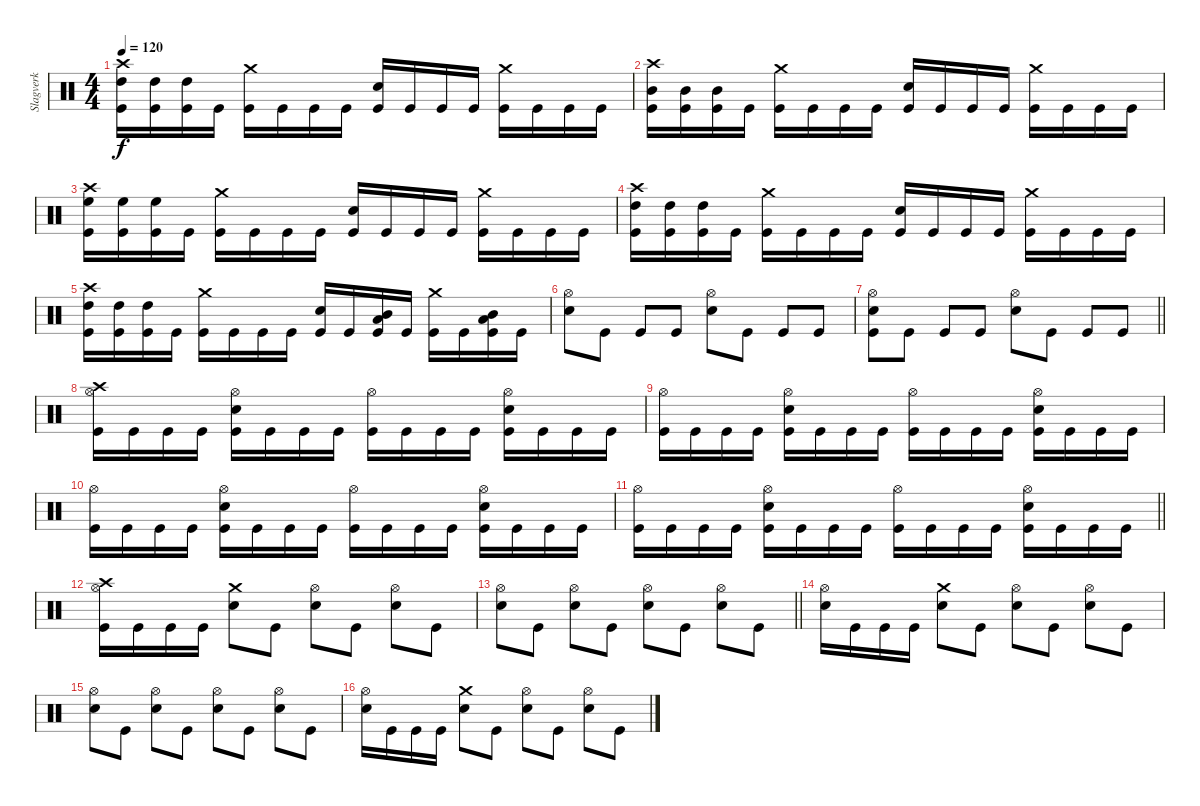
\track ("Slagverk" "Slagverk") {instrument percussion}
\staff {score}
\articulation defaults
\ts (4 4)
\tempo 120
\clef neutral
\ks c
("Crash high (hit)" "High Tom (hit)" "Kick (hit)").16{dy f} ("High Tom (hit)" "Kick (hit)").16 ("High Tom (hit)" "Kick (hit)").16 "Kick (hit)".16 ("Crash medium (hit)" "Kick (hit)").16 "Kick (hit)".16 "Kick (hit)".16 "Kick (hit)".16 ("Electric Snare (hit)" "Kick (hit)").16 "Kick (hit)".16 "Kick (hit)".16 "Kick (hit)".16 ("Crash medium (hit)" "Kick (hit)").16 "Kick (hit)".16 "Kick (hit)".16 "Kick (hit)".16 |
("Crash high (hit)" "Mid Tom (hit)" "Kick (hit)").16 ("Mid Tom (hit)" "Kick (hit)").16 ("Mid Tom (hit)" "Kick (hit)").16 "Kick (hit)".16 ("Crash medium (hit)" "Kick (hit)").16 "Kick (hit)".16 "Kick (hit)".16 "Kick (hit)".16 ("Electric Snare (hit)" "Kick (hit)").16 "Kick (hit)".16 "Kick (hit)".16 "Kick (hit)".16 ("Crash medium (hit)" "Kick (hit)").16 "Kick (hit)".16 "Kick (hit)".16 "Kick (hit)".16 |
("Crash high (hit)" "High Floor Tom (hit)" "Kick (hit)").16 ("High Floor Tom (hit)" "Kick (hit)").16 ("High Floor Tom (hit)" "Kick (hit)").16 "Kick (hit)".16 ("Crash medium (hit)" "Kick (hit)").16 "Kick (hit)".16 "Kick (hit)".16 "Kick (hit)".16 ("Electric Snare (hit)" "Kick (hit)").16 "Kick (hit)".16 "Kick (hit)".16 "Kick (hit)".16 ("Crash medium (hit)" "Kick (hit)").16 "Kick (hit)".16 "Kick (hit)".16 "Kick (hit)".16 |
("Crash high (hit)" "High Tom (hit)" "Kick (hit)").16 ("High Tom (hit)" "Kick (hit)").16 ("High Tom (hit)" "Kick (hit)").16 "Kick (hit)".16 ("Crash medium (hit)" "Kick (hit)").16 "Kick (hit)".16 "Kick (hit)".16 "Kick (hit)".16 ("Electric Snare (hit)" "Kick (hit)").16 "Kick (hit)".16 "Kick (hit)".16 "Kick (hit)".16 ("Crash medium (hit)" "Kick (hit)").16 "Kick (hit)".16 "Kick (hit)".16 "Kick (hit)".16 |
("Crash high (hit)" "High Tom (hit)" "Kick (hit)").16 ("High Tom (hit)" "Kick (hit)").16 ("High Tom (hit)" "Kick (hit)").16 "Kick (hit)".16 ("Crash medium (hit)" "Kick (hit)").16 "Kick (hit)".16 "Kick (hit)".16 "Kick (hit)".16 ("Electric Snare (hit)" "Kick (hit)").16 "Kick (hit)".16 ("Mid Tom (hit)" "Low Tom (hit)" "Kick (hit)").16 "Kick (hit)".16 ("Crash medium (hit)" "Kick (hit)").16 "Kick (hit)".16 ("Mid Tom (hit)" "Low Tom (hit)" "Kick (hit)").16 "Kick (hit)".16 |
("Hi-Hat (open)" "Electric Snare (hit)").8 "Kick (hit)".8 "Kick (hit)".8 "Kick (hit)".8 ("Hi-Hat (open)" "Electric Snare (hit)").8 "Kick (hit)".8 "Kick (hit)".8 "Kick (hit)".8 |
\barLineRight lightlight
("Hi-Hat (open)" "Electric Snare (hit)" "Kick (hit)").8 "Kick (hit)".8 "Kick (hit)".8 "Kick (hit)".8 ("Hi-Hat (open)" "Electric Snare (hit)").8 "Kick (hit)".8 "Kick (hit)".8 "Kick (hit)".8 |
("Crash high (hit)" "Hi-Hat (open)" "Kick (hit)").16 "Kick (hit)".16 "Kick (hit)".16 "Kick (hit)".16 ("Hi-Hat (open)" "Electric Snare (hit)" "Kick (hit)").16 "Kick (hit)".16 "Kick (hit)".16 "Kick (hit)".16 ("Hi-Hat (open)" "Kick (hit)").16 "Kick (hit)".16 "Kick (hit)".16 "Kick (hit)".16 ("Hi-Hat (open)" "Electric Snare (hit)" "Kick (hit)").16 "Kick (hit)".16 "Kick (hit)".16 "Kick (hit)".16 |
("Hi-Hat (open)" "Kick (hit)").16 "Kick (hit)".16 "Kick (hit)".16 "Kick (hit)".16 ("Hi-Hat (open)" "Electric Snare (hit)" "Kick (hit)").16 "Kick (hit)".16 "Kick (hit)".16 "Kick (hit)".16 ("Hi-Hat (open)" "Kick (hit)").16 "Kick (hit)".16 "Kick (hit)".16 "Kick (hit)".16 ("Hi-Hat (open)" "Electric Snare (hit)" "Kick (hit)").16 "Kick (hit)".16 "Kick (hit)".16 "Kick (hit)".16 |
("Hi-Hat (open)" "Kick (hit)").16 "Kick (hit)".16 "Kick (hit)".16 "Kick (hit)".16 ("Hi-Hat (open)" "Electric Snare (hit)" "Kick (hit)").16 "Kick (hit)".16 "Kick (hit)".16 "Kick (hit)".16 ("Hi-Hat (open)" "Kick (hit)").16 "Kick (hit)".16 "Kick (hit)".16 "Kick (hit)".16 ("Hi-Hat (open)" "Electric Snare (hit)" "Kick (hit)").16 "Kick (hit)".16 "Kick (hit)".16 "Kick (hit)".16 |
\barLineRight lightlight
("Hi-Hat (open)" "Kick (hit)").16 "Kick (hit)".16 "Kick (hit)".16 "Kick (hit)".16 ("Hi-Hat (open)" "Electric Snare (hit)" "Kick (hit)").16 "Kick (hit)".16 "Kick (hit)".16 "Kick (hit)".16 ("Hi-Hat (open)" "Kick (hit)").16 "Kick (hit)".16 "Kick (hit)".16 "Kick (hit)".16 ("Hi-Hat (open)" "Electric Snare (hit)" "Kick (hit)").16 "Kick (hit)".16 "Kick (hit)".16 "Kick (hit)".16 |
("Crash high (hit)" "Hi-Hat (open)" "Kick (hit)").16 "Kick (hit)".16 "Kick (hit)".16 "Kick (hit)".16 ("Crash medium (hit)" "Electric Snare (hit)").8 "Kick (hit)".8 ("Hi-Hat (open)" "Electric Snare (hit)").8 "Kick (hit)".8 ("Hi-Hat (open)" "Electric Snare (hit)").8 "Kick (hit)".8 |
\barLineRight lightlight
("Hi-Hat (open)" "Electric Snare (hit)").8 "Kick (hit)".8 ("Hi-Hat (open)" "Electric Snare (hit)").8 "Kick (hit)".8 ("Hi-Hat (open)" "Electric Snare (hit)").8 "Kick (hit)".8 ("Hi-Hat (open)" "Electric Snare (hit)").8 "Kick (hit)".8 |
("Hi-Hat (open)" "Electric Snare (hit)").16 "Kick (hit)".16 "Kick (hit)".16 "Kick (hit)".16 ("Crash medium (hit)" "Electric Snare (hit)").8 "Kick (hit)".8 ("Hi-Hat (open)" "Electric Snare (hit)").8 "Kick (hit)".8 ("Hi-Hat (open)" "Electric Snare (hit)").8 "Kick (hit)".8 |
("Hi-Hat (open)" "Electric Snare (hit)").8 "Kick (hit)".8 ("Hi-Hat (open)" "Electric Snare (hit)").8 "Kick (hit)".8 ("Hi-Hat (open)" "Electric Snare (hit)").8 "Kick (hit)".8 ("Hi-Hat (open)" "Electric Snare (hit)").8 "Kick (hit)".8 |
("Hi-Hat (open)" "Electric Snare (hit)").16 "Kick (hit)".16 "Kick (hit)".16 "Kick (hit)".16 ("Crash medium (hit)" "Electric Snare (hit)").8 "Kick (hit)".8 ("Hi-Hat (open)" "Electric Snare (hit)").8 "Kick (hit)".8 ("Hi-Hat (open)" "Electric Snare (hit)").8 "Kick (hit)".8
